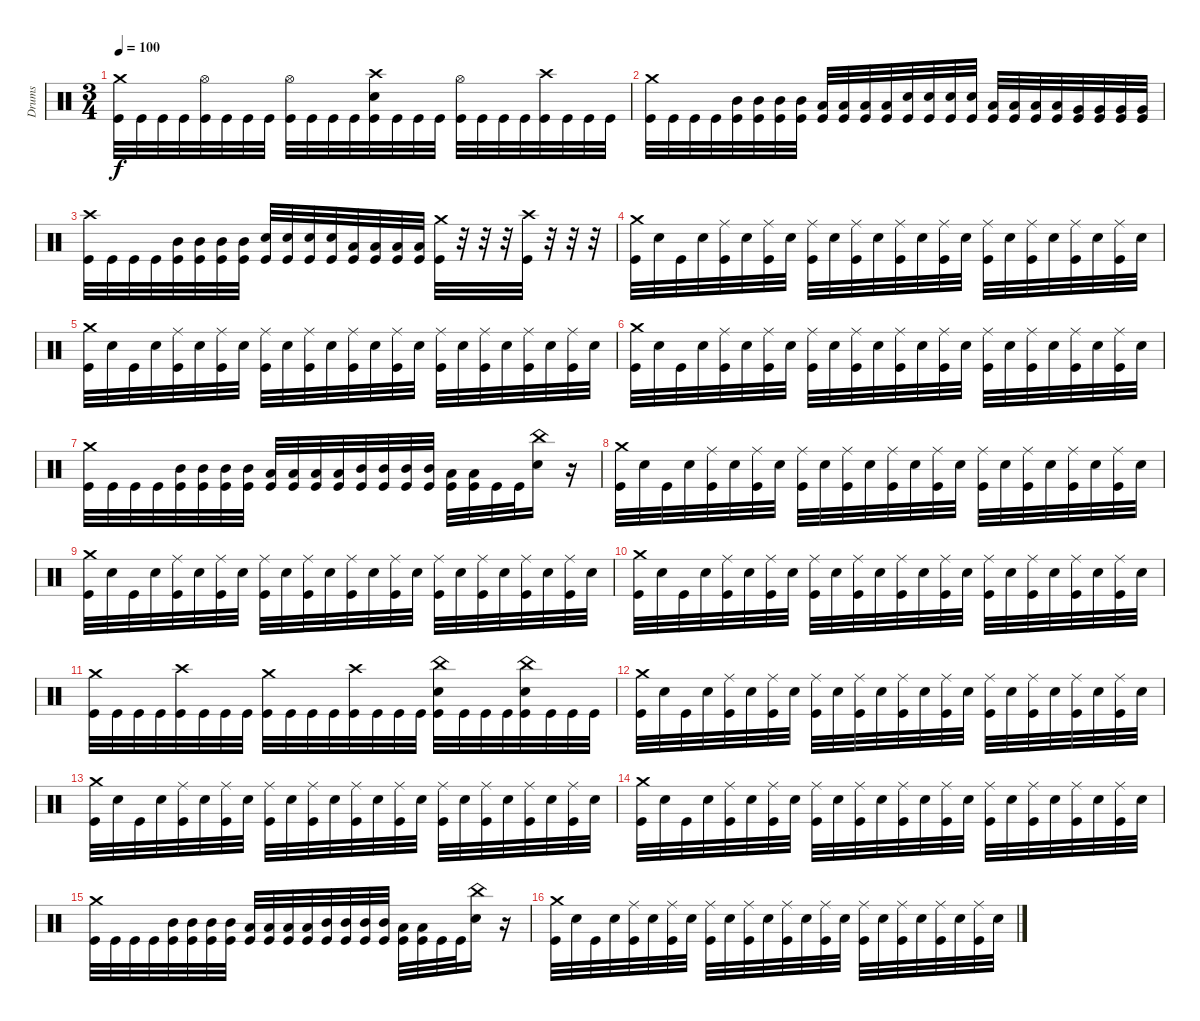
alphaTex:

\track ("Drums" "Drums") {instrument percussion}
\staff {score}
\articulation defaults
\ts (3 4)
\tempo 100
\clef neutral
\ks c
("Crash medium (hit)" "Kick (hit)").32{dy f} "Kick (hit)".32 "Kick (hit)".32 "Kick (hit)".32 ("Hi-Hat (open)" "Kick (hit)").32 "Kick (hit)".32 "Kick (hit)".32 "Kick (hit)".32 ("Hi-Hat (open)" "Kick (hit)").32 "Kick (hit)".32 "Kick (hit)".32 "Kick (hit)".32 ("Crash high (hit)" "Snare (hit) 2" "Kick (hit)").32 "Kick (hit)".32 "Kick (hit)".32 "Kick (hit)".32 ("Hi-Hat (open)" "Kick (hit)").32 "Kick (hit)".32 "Kick (hit)".32 "Kick (hit)".32 ("Crash high (hit)" "Kick (hit)").32 "Kick (hit)".32 "Kick (hit)".32 "Kick (hit)".32 |
("Crash medium (hit)" "Kick (hit)").32 "Kick (hit)".32 "Kick (hit)".32 "Kick (hit)".32 ("Mid Tom (hit)" "Kick (hit)").32 ("Mid Tom (hit)" "Kick (hit)").32 ("Mid Tom (hit)" "Kick (hit)").32 ("Mid Tom (hit)" "Kick (hit)").32 ("Low Tom (hit)" "Kick (hit)").32 ("Low Tom (hit)" "Kick (hit)").32 ("Low Tom (hit)" "Kick (hit)").32 ("Low Tom (hit)" "Kick (hit)").32 ("Snare (hit) 2" "Kick (hit)").32 ("Snare (hit) 2" "Kick (hit)").32 ("Snare (hit) 2" "Kick (hit)").32 ("Snare (hit) 2" "Kick (hit)").32 ("Low Tom (hit)" "Kick (hit)").32 ("Low Tom (hit)" "Kick (hit)").32 ("Low Tom (hit)" "Kick (hit)").32 ("Low Tom (hit)" "Kick (hit)").32 ("Very Low Tom (hit)" "Kick (hit)").32 ("Very Low Tom (hit)" "Kick (hit)").32 ("Very Low Tom (hit)" "Kick (hit)").32 ("Very Low Tom (hit)" "Kick (hit)").32 |
("Crash high (hit)" "Kick (hit)").32 "Kick (hit)".32 "Kick (hit)".32 "Kick (hit)".32 ("Mid Tom (hit)" "Kick (hit)").32 ("Mid Tom (hit)" "Kick (hit)").32 ("Mid Tom (hit)" "Kick (hit)").32 ("Mid Tom (hit)" "Kick (hit)").32 ("Snare (hit) 2" "Kick (hit)").32 ("Snare (hit) 2" "Kick (hit)").32 ("Snare (hit) 2" "Kick (hit)").32 ("Snare (hit) 2" "Kick (hit)").32 ("Low Tom (hit)" "Kick (hit)").32 ("Low Tom (hit)" "Kick (hit)").32 ("Low Tom (hit)" "Kick (hit)").32 ("Low Tom (hit)" "Kick (hit)").32 ("Crash medium (hit)" "Kick (hit)").32 r.32 r.32 r.32 ("Crash high (hit)" "Kick (hit)").32 r.32 r.32 r.32 |
("Crash medium (hit)" "Kick (hit)").32 "Snare (hit) 2".32 "Kick (hit)".32 "Snare (hit) 2".32 ("Ride (middle)" "Kick (hit)").32 "Snare (hit) 2".32 ("Ride (middle)" "Kick (hit)").32 "Snare (hit) 2".32 ("Ride (middle)" "Kick (hit)").32 "Snare (hit) 2".32 ("Ride (middle)" "Kick (hit)").32 "Snare (hit) 2".32 ("Ride (middle)" "Kick (hit)").32 "Snare (hit) 2".32 ("Ride (middle)" "Kick (hit)").32 "Snare (hit) 2".32 ("Ride (middle)" "Kick (hit)").32 "Snare (hit) 2".32 ("Ride (middle)" "Kick (hit)").32 "Snare (hit) 2".32 ("Ride (middle)" "Kick (hit)").32 "Snare (hit) 2".32 ("Ride (middle)" "Kick (hit)").32 "Snare (hit) 2".32 |
("Crash medium (hit)" "Kick (hit)").32 "Snare (hit) 2".32 "Kick (hit)".32 "Snare (hit) 2".32 ("Ride (middle)" "Kick (hit)").32 "Snare (hit) 2".32 ("Ride (middle)" "Kick (hit)").32 "Snare (hit) 2".32 ("Ride (middle)" "Kick (hit)").32 "Snare (hit) 2".32 ("Ride (middle)" "Kick (hit)").32 "Snare (hit) 2".32 ("Ride (middle)" "Kick (hit)").32 "Snare (hit) 2".32 ("Ride (middle)" "Kick (hit)").32 "Snare (hit) 2".32 ("Ride (middle)" "Kick (hit)").32 "Snare (hit) 2".32 ("Ride (middle)" "Kick (hit)").32 "Snare (hit) 2".32 ("Ride (middle)" "Kick (hit)").32 "Snare (hit) 2".32 ("Ride (middle)" "Kick (hit)").32 "Snare (hit) 2".32 |
("Crash medium (hit)" "Kick (hit)").32 "Snare (hit) 2".32 "Kick (hit)".32 "Snare (hit) 2".32 ("Ride (middle)" "Kick (hit)").32 "Snare (hit) 2".32 ("Ride (middle)" "Kick (hit)").32 "Snare (hit) 2".32 ("Ride (middle)" "Kick (hit)").32 "Snare (hit) 2".32 ("Ride (middle)" "Kick (hit)").32 "Snare (hit) 2".32 ("Ride (middle)" "Kick (hit)").32 "Snare (hit) 2".32 ("Ride (middle)" "Kick (hit)").32 "Snare (hit) 2".32 ("Ride (middle)" "Kick (hit)").32 "Snare (hit) 2".32 ("Ride (middle)" "Kick (hit)").32 "Snare (hit) 2".32 ("Ride (middle)" "Kick (hit)").32 "Snare (hit) 2".32 ("Ride (middle)" "Kick (hit)").32 "Snare (hit) 2".32 |
("Crash medium (hit)" "Kick (hit)").32 "Kick (hit)".32 "Kick (hit)".32 "Kick (hit)".32 ("Mid Tom (hit)" "Kick (hit)").32 ("Mid Tom (hit)" "Kick (hit)").32 ("Mid Tom (hit)" "Kick (hit)").32 ("Mid Tom (hit)" "Kick (hit)").32 ("Low Tom (hit)" "Kick (hit)").32 ("Low Tom (hit)" "Kick (hit)").32 ("Low Tom (hit)" "Kick (hit)").32 ("Low Tom (hit)" "Kick (hit)").32 ("Mid Tom (hit)" "Kick (hit)").32 ("Mid Tom (hit)" "Kick (hit)").32 ("Mid Tom (hit)" "Kick (hit)").32 ("Mid Tom (hit)" "Kick (hit)").32 ("Low Tom (hit)" "Kick (hit)").32 ("Low Tom (hit)" "Kick (hit)").32 "Kick (hit)".32 "Kick (hit)".32 ("China (hit)" "Snare (hit) 2").16 r.16 |
("Crash medium (hit)" "Kick (hit)").32 "Snare (hit) 2".32 "Kick (hit)".32 "Snare (hit) 2".32 ("Ride (middle)" "Kick (hit)").32 "Snare (hit) 2".32 ("Ride (middle)" "Kick (hit)").32 "Snare (hit) 2".32 ("Ride (middle)" "Kick (hit)").32 "Snare (hit) 2".32 ("Ride (middle)" "Kick (hit)").32 "Snare (hit) 2".32 ("Ride (middle)" "Kick (hit)").32 "Snare (hit) 2".32 ("Ride (middle)" "Kick (hit)").32 "Snare (hit) 2".32 ("Ride (middle)" "Kick (hit)").32 "Snare (hit) 2".32 ("Ride (middle)" "Kick (hit)").32 "Snare (hit) 2".32 ("Ride (middle)" "Kick (hit)").32 "Snare (hit) 2".32 ("Ride (middle)" "Kick (hit)").32 "Snare (hit) 2".32 |
("Crash medium (hit)" "Kick (hit)").32 "Snare (hit) 2".32 "Kick (hit)".32 "Snare (hit) 2".32 ("Ride (middle)" "Kick (hit)").32 "Snare (hit) 2".32 ("Ride (middle)" "Kick (hit)").32 "Snare (hit) 2".32 ("Ride (middle)" "Kick (hit)").32 "Snare (hit) 2".32 ("Ride (middle)" "Kick (hit)").32 "Snare (hit) 2".32 ("Ride (middle)" "Kick (hit)").32 "Snare (hit) 2".32 ("Ride (middle)" "Kick (hit)").32 "Snare (hit) 2".32 ("Ride (middle)" "Kick (hit)").32 "Snare (hit) 2".32 ("Ride (middle)" "Kick (hit)").32 "Snare (hit) 2".32 ("Ride (middle)" "Kick (hit)").32 "Snare (hit) 2".32 ("Ride (middle)" "Kick (hit)").32 "Snare (hit) 2".32 |
("Crash medium (hit)" "Kick (hit)").32 "Snare (hit) 2".32 "Kick (hit)".32 "Snare (hit) 2".32 ("Ride (middle)" "Kick (hit)").32 "Snare (hit) 2".32 ("Ride (middle)" "Kick (hit)").32 "Snare (hit) 2".32 ("Ride (middle)" "Kick (hit)").32 "Snare (hit) 2".32 ("Ride (middle)" "Kick (hit)").32 "Snare (hit) 2".32 ("Ride (middle)" "Kick (hit)").32 "Snare (hit) 2".32 ("Ride (middle)" "Kick (hit)").32 "Snare (hit) 2".32 ("Ride (middle)" "Kick (hit)").32 "Snare (hit) 2".32 ("Ride (middle)" "Kick (hit)").32 "Snare (hit) 2".32 ("Ride (middle)" "Kick (hit)").32 "Snare (hit) 2".32 ("Ride (middle)" "Kick (hit)").32 "Snare (hit) 2".32 |
("Crash medium (hit)" "Kick (hit)").32 "Kick (hit)".32 "Kick (hit)".32 "Kick (hit)".32 ("Crash high (hit)" "Kick (hit)").32 "Kick (hit)".32 "Kick (hit)".32 "Kick (hit)".32 ("Crash medium (hit)" "Kick (hit)").32 "Kick (hit)".32 "Kick (hit)".32 "Kick (hit)".32 ("Crash high (hit)" "Kick (hit)").32 "Kick (hit)".32 "Kick (hit)".32 "Kick (hit)".32 ("China (hit)" "Snare (hit) 2" "Kick (hit)").32 "Kick (hit)".32 "Kick (hit)".32 "Kick (hit)".32 ("China (hit)" "Snare (hit) 2" "Kick (hit)").32 "Kick (hit)".32 "Kick (hit)".32 "Kick (hit)".32 |
("Crash medium (hit)" "Kick (hit)").32 "Snare (hit) 2".32 "Kick (hit)".32 "Snare (hit) 2".32 ("Ride (middle)" "Kick (hit)").32 "Snare (hit) 2".32 ("Ride (middle)" "Kick (hit)").32 "Snare (hit) 2".32 ("Ride (middle)" "Kick (hit)").32 "Snare (hit) 2".32 ("Ride (middle)" "Kick (hit)").32 "Snare (hit) 2".32 ("Ride (middle)" "Kick (hit)").32 "Snare (hit) 2".32 ("Ride (middle)" "Kick (hit)").32 "Snare (hit) 2".32 ("Ride (middle)" "Kick (hit)").32 "Snare (hit) 2".32 ("Ride (middle)" "Kick (hit)").32 "Snare (hit) 2".32 ("Ride (middle)" "Kick (hit)").32 "Snare (hit) 2".32 ("Ride (middle)" "Kick (hit)").32 "Snare (hit) 2".32 |
("Crash medium (hit)" "Kick (hit)").32 "Snare (hit) 2".32 "Kick (hit)".32 "Snare (hit) 2".32 ("Ride (middle)" "Kick (hit)").32 "Snare (hit) 2".32 ("Ride (middle)" "Kick (hit)").32 "Snare (hit) 2".32 ("Ride (middle)" "Kick (hit)").32 "Snare (hit) 2".32 ("Ride (middle)" "Kick (hit)").32 "Snare (hit) 2".32 ("Ride (middle)" "Kick (hit)").32 "Snare (hit) 2".32 ("Ride (middle)" "Kick (hit)").32 "Snare (hit) 2".32 ("Ride (middle)" "Kick (hit)").32 "Snare (hit) 2".32 ("Ride (middle)" "Kick (hit)").32 "Snare (hit) 2".32 ("Ride (middle)" "Kick (hit)").32 "Snare (hit) 2".32 ("Ride (middle)" "Kick (hit)").32 "Snare (hit) 2".32 |
("Crash medium (hit)" "Kick (hit)").32 "Snare (hit) 2".32 "Kick (hit)".32 "Snare (hit) 2".32 ("Ride (middle)" "Kick (hit)").32 "Snare (hit) 2".32 ("Ride (middle)" "Kick (hit)").32 "Snare (hit) 2".32 ("Ride (middle)" "Kick (hit)").32 "Snare (hit) 2".32 ("Ride (middle)" "Kick (hit)").32 "Snare (hit) 2".32 ("Ride (middle)" "Kick (hit)").32 "Snare (hit) 2".32 ("Ride (middle)" "Kick (hit)").32 "Snare (hit) 2".32 ("Ride (middle)" "Kick (hit)").32 "Snare (hit) 2".32 ("Ride (middle)" "Kick (hit)").32 "Snare (hit) 2".32 ("Ride (middle)" "Kick (hit)").32 "Snare (hit) 2".32 ("Ride (middle)" "Kick (hit)").32 "Snare (hit) 2".32 |
("Crash medium (hit)" "Kick (hit)").32 "Kick (hit)".32 "Kick (hit)".32 "Kick (hit)".32 ("Mid Tom (hit)" "Kick (hit)").32 ("Mid Tom (hit)" "Kick (hit)").32 ("Mid Tom (hit)" "Kick (hit)").32 ("Mid Tom (hit)" "Kick (hit)").32 ("Low Tom (hit)" "Kick (hit)").32 ("Low Tom (hit)" "Kick (hit)").32 ("Low Tom (hit)" "Kick (hit)").32 ("Low Tom (hit)" "Kick (hit)").32 ("Mid Tom (hit)" "Kick (hit)").32 ("Mid Tom (hit)" "Kick (hit)").32 ("Mid Tom (hit)" "Kick (hit)").32 ("Mid Tom (hit)" "Kick (hit)").32 ("Low Tom (hit)" "Kick (hit)").32 ("Low Tom (hit)" "Kick (hit)").32 "Kick (hit)".32 "Kick (hit)".32 ("China (hit)" "Snare (hit) 2").16 r.16 |
("Crash medium (hit)" "Kick (hit)").32 "Snare (hit) 2".32 "Kick (hit)".32 "Snare (hit) 2".32 ("Ride (middle)" "Kick (hit)").32 "Snare (hit) 2".32 ("Ride (middle)" "Kick (hit)").32 "Snare (hit) 2".32 ("Ride (middle)" "Kick (hit)").32 "Snare (hit) 2".32 ("Ride (middle)" "Kick (hit)").32 "Snare (hit) 2".32 ("Ride (middle)" "Kick (hit)").32 "Snare (hit) 2".32 ("Ride (middle)" "Kick (hit)").32 "Snare (hit) 2".32 ("Ride (middle)" "Kick (hit)").32 "Snare (hit) 2".32 ("Ride (middle)" "Kick (hit)").32 "Snare (hit) 2".32 ("Ride (middle)" "Kick (hit)").32 "Snare (hit) 2".32 ("Ride (middle)" "Kick (hit)").32 "Snare (hit) 2".32
